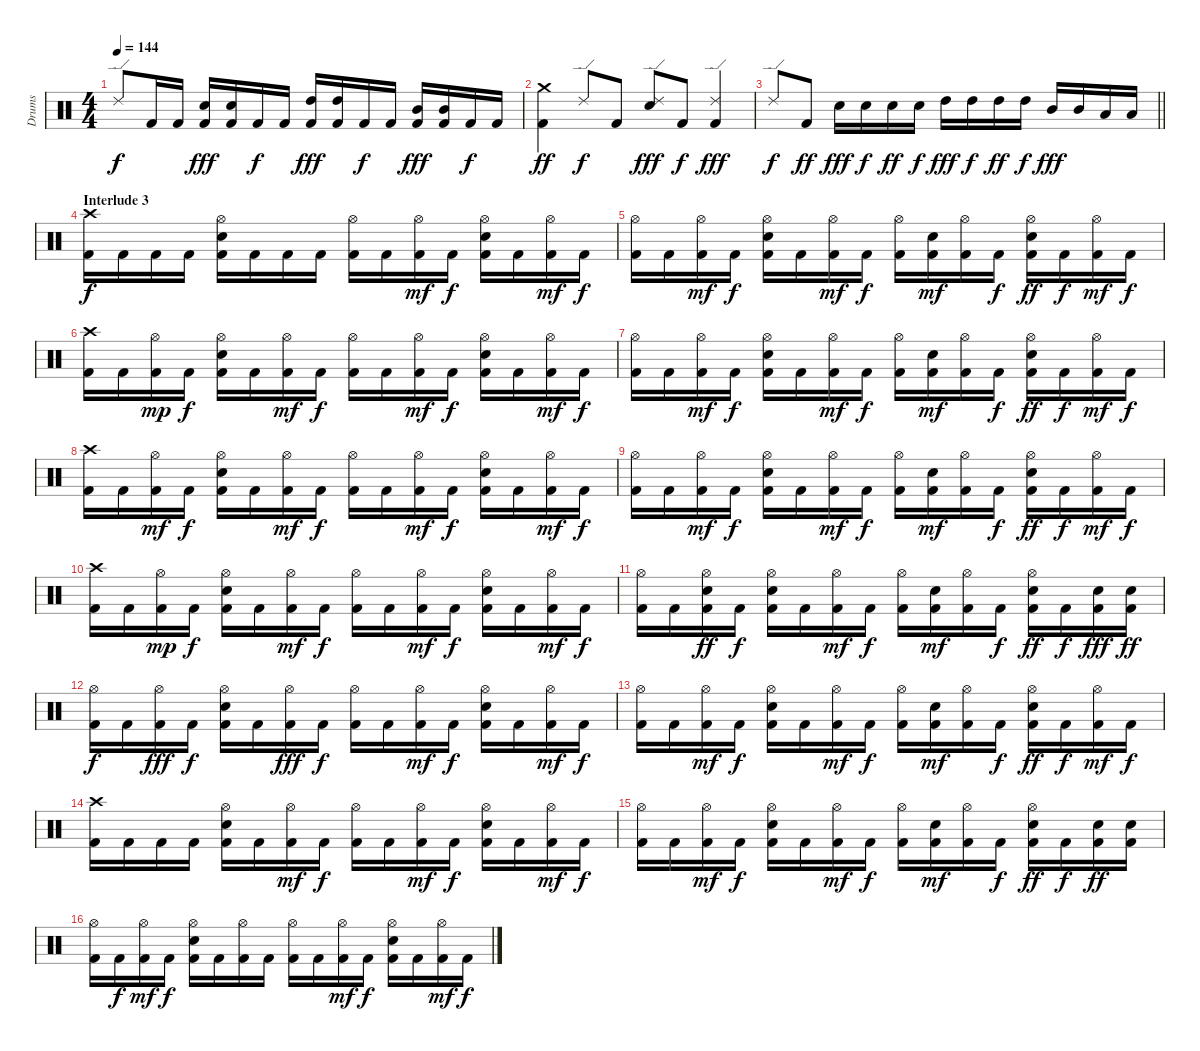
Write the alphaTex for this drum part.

\track ("Drums" "Drums") {instrument percussion}
\staff {score}
\articulation defaults
\ts (4 4)
\tempo 144
\clef neutral
\ks c "Ride (edge) 2".8{dy f} "Kick (hit) 2".16 "Kick (hit) 2".16
("Electric Snare (hit)" "Kick (hit) 2").16{dy fff} ("Electric Snare (hit)" "Kick (hit) 2").16 "Kick (hit) 2".16{dy f} "Kick (hit) 2".16 ("High Tom (hit)" "Kick (hit) 2").16{dy fff} ("High Tom (hit)" "Kick (hit) 2").16 "Kick (hit) 2".16{dy f} "Kick (hit) 2".16 ("Mid Tom (hit)" "Kick (hit) 2").16{dy fff} ("Mid Tom (hit)" "Kick (hit) 2").16 "Kick (hit) 2".16{dy f} "Kick (hit) 2".16 |
("Crash medium (hit)" "Kick (hit) 2").4{dy ff} "Ride (edge) 2".8{dy f} "Kick (hit) 2".8 ("Ride (edge) 2" "Electric Snare (hit)").8{dy fff} "Kick (hit) 2".8{dy f} ("Ride (edge) 2" "Kick (hit) 2").4{dy fff} |
\barLineRight lightlight "Ride (edge) 2".8{dy f} "Kick (hit) 2".8{dy ff} "Electric Snare (hit)".16{dy fff} "Electric Snare (hit)".16{dy f} "Electric Snare (hit)".16{dy ff} "Electric Snare (hit)".16{dy f} "High Tom (hit)".16{dy fff} "High Tom (hit)".16{dy f} "High Tom (hit)".16{dy ff} "High Tom (hit)".16{dy f} "Mid Tom (hit)".16{dy fff} "Mid Tom (hit)".16 "Low Tom (hit)".16 "Low Tom (hit)".16
|
\section ("" "Interlude 3")
("Crash high (hit)" "Kick (hit) 2").16{dy f} "Kick (hit) 2".16 "Kick (hit) 2".16 "Kick (hit) 2".16 ("Hi-Hat (open)" "Electric Snare (hit)" "Kick (hit) 2").16 "Kick (hit) 2".16 "Kick (hit) 2".16 "Kick (hit) 2".16 ("Hi-Hat (open)" "Kick (hit) 2").16 "Kick (hit) 2".16 ("Hi-Hat (open)" "Kick (hit) 2").16{dy mf} "Kick (hit) 2".16{dy f} ("Hi-Hat (open)" "Electric Snare (hit)" "Kick (hit) 2").16 "Kick (hit) 2".16 ("Hi-Hat (open)" "Kick (hit) 2").16{dy mf} "Kick (hit) 2".16{dy f} |
("Hi-Hat (open)" "Kick (hit) 2").16 "Kick (hit) 2".16 ("Hi-Hat (open)" "Kick (hit) 2").16{dy mf} "Kick (hit) 2".16{dy f} ("Hi-Hat (open)" "Electric Snare (hit)" "Kick (hit) 2").16 "Kick (hit) 2".16 ("Hi-Hat (open)" "Kick (hit) 2").16{dy mf} "Kick (hit) 2".16{dy f} ("Hi-Hat (open)" "Kick (hit) 2").16 ("Electric Snare (hit)" "Kick (hit) 2").16{dy mf} ("Hi-Hat (open)" "Kick (hit) 2").16 "Kick (hit) 2".16{dy f} ("Hi-Hat (open)" "Electric Snare (hit)" "Kick (hit) 2").16{dy ff} "Kick (hit) 2".16{dy f} ("Hi-Hat (open)" "Kick (hit) 2").16{dy mf} "Kick (hit) 2".16{dy f} |
("Crash high (hit)" "Kick (hit) 2").16 "Kick (hit) 2".16 ("Hi-Hat (open)" "Kick (hit) 2").16{dy mp} "Kick (hit) 2".16{dy f} ("Hi-Hat (open)" "Electric Snare (hit)" "Kick (hit) 2").16 "Kick (hit) 2".16 ("Hi-Hat (open)" "Kick (hit) 2").16{dy mf} "Kick (hit) 2".16{dy f} ("Hi-Hat (open)" "Kick (hit) 2").16 "Kick (hit) 2".16 ("Hi-Hat (open)" "Kick (hit) 2").16{dy mf} "Kick (hit) 2".16{dy f} ("Hi-Hat (open)" "Electric Snare (hit)" "Kick (hit) 2").16 "Kick (hit) 2".16 ("Hi-Hat (open)" "Kick (hit) 2").16{dy mf} "Kick (hit) 2".16{dy f} |
("Hi-Hat (open)" "Kick (hit) 2").16 "Kick (hit) 2".16 ("Hi-Hat (open)" "Kick (hit) 2").16{dy mf} "Kick (hit) 2".16{dy f} ("Hi-Hat (open)" "Electric Snare (hit)" "Kick (hit) 2").16 "Kick (hit) 2".16 ("Hi-Hat (open)" "Kick (hit) 2").16{dy mf} "Kick (hit) 2".16{dy f} ("Hi-Hat (open)" "Kick (hit) 2").16 ("Electric Snare (hit)" "Kick (hit) 2").16{dy mf} ("Hi-Hat (open)" "Kick (hit) 2").16 "Kick (hit) 2".16{dy f} ("Hi-Hat (open)" "Electric Snare (hit)" "Kick (hit) 2").16{dy ff} "Kick (hit) 2".16{dy f} ("Hi-Hat (open)" "Kick (hit) 2").16{dy mf} "Kick (hit) 2".16{dy f} |
("Crash high (hit)" "Kick (hit) 2").16 "Kick (hit) 2".16 ("Hi-Hat (open)" "Kick (hit) 2").16{dy mf} "Kick (hit) 2".16{dy f} ("Hi-Hat (open)" "Electric Snare (hit)" "Kick (hit) 2").16 "Kick (hit) 2".16 ("Hi-Hat (open)" "Kick (hit) 2").16{dy mf} "Kick (hit) 2".16{dy f} ("Hi-Hat (open)" "Kick (hit) 2").16 "Kick (hit) 2".16 ("Hi-Hat (open)" "Kick (hit) 2").16{dy mf} "Kick (hit) 2".16{dy f} ("Hi-Hat (open)" "Electric Snare (hit)" "Kick (hit) 2").16 "Kick (hit) 2".16 ("Hi-Hat (open)" "Kick (hit) 2").16{dy mf} "Kick (hit) 2".16{dy f} |
("Hi-Hat (open)" "Kick (hit) 2").16 "Kick (hit) 2".16 ("Hi-Hat (open)" "Kick (hit) 2").16{dy mf} "Kick (hit) 2".16{dy f} ("Hi-Hat (open)" "Electric Snare (hit)" "Kick (hit) 2").16 "Kick (hit) 2".16 ("Hi-Hat (open)" "Kick (hit) 2").16{dy mf} "Kick (hit) 2".16{dy f} ("Hi-Hat (open)" "Kick (hit) 2").16 ("Electric Snare (hit)" "Kick (hit) 2").16{dy mf} ("Hi-Hat (open)" "Kick (hit) 2").16 "Kick (hit) 2".16{dy f} ("Hi-Hat (open)" "Electric Snare (hit)" "Kick (hit) 2").16{dy ff} "Kick (hit) 2".16{dy f} ("Hi-Hat (open)" "Kick (hit) 2").16{dy mf} "Kick (hit) 2".16{dy f} |
("Crash high (hit)" "Kick (hit) 2").16 "Kick (hit) 2".16 ("Hi-Hat (open)" "Kick (hit) 2").16{dy mp} "Kick (hit) 2".16{dy f} ("Hi-Hat (open)" "Electric Snare (hit)" "Kick (hit) 2").16 "Kick (hit) 2".16 ("Hi-Hat (open)" "Kick (hit) 2").16{dy mf} "Kick (hit) 2".16{dy f} ("Hi-Hat (open)" "Kick (hit) 2").16 "Kick (hit) 2".16 ("Hi-Hat (open)" "Kick (hit) 2").16{dy mf} "Kick (hit) 2".16{dy f} ("Hi-Hat (open)" "Electric Snare (hit)" "Kick (hit) 2").16 "Kick (hit) 2".16 ("Hi-Hat (open)" "Kick (hit) 2").16{dy mf} "Kick (hit) 2".16{dy f} |
("Hi-Hat (open)" "Kick (hit) 2").16 "Kick (hit) 2".16 ("Hi-Hat (open)" "Electric Snare (hit)" "Kick (hit) 2").16{dy ff} "Kick (hit) 2".16{dy f} ("Hi-Hat (open)" "Electric Snare (hit)" "Kick (hit) 2").16 "Kick (hit) 2".16 ("Hi-Hat (open)" "Kick (hit) 2").16{dy mf} "Kick (hit) 2".16{dy f} ("Hi-Hat (open)" "Kick (hit) 2").16 ("Electric Snare (hit)" "Kick (hit) 2").16{dy mf} ("Hi-Hat (open)" "Kick (hit) 2").16 "Kick (hit) 2".16{dy f} ("Hi-Hat (open)" "Electric Snare (hit)" "Kick (hit) 2").16{dy ff} "Kick (hit) 2".16{dy f} ("Electric Snare (hit)" "Kick (hit) 2").16{dy fff} ("Electric Snare (hit)" "Kick (hit) 2").16{dy ff} |
("Hi-Hat (open)" "Kick (hit) 2").16{dy f} "Kick (hit) 2".16 ("Hi-Hat (open)" "Kick (hit) 2").16{dy fff} "Kick (hit) 2".16{dy f} ("Hi-Hat (open)" "Electric Snare (hit)" "Kick (hit) 2").16 "Kick (hit) 2".16 ("Hi-Hat (open)" "Kick (hit) 2").16{dy fff} "Kick (hit) 2".16{dy f} ("Hi-Hat (open)" "Kick (hit) 2").16 "Kick (hit) 2".16 ("Hi-Hat (open)" "Kick (hit) 2").16{dy mf} "Kick (hit) 2".16{dy f} ("Hi-Hat (open)" "Electric Snare (hit)" "Kick (hit) 2").16 "Kick (hit) 2".16 ("Hi-Hat (open)" "Kick (hit) 2").16{dy mf} "Kick (hit) 2".16{dy f} |
("Hi-Hat (open)" "Kick (hit) 2").16 "Kick (hit) 2".16 ("Hi-Hat (open)" "Kick (hit) 2").16{dy mf} "Kick (hit) 2".16{dy f} ("Hi-Hat (open)" "Electric Snare (hit)" "Kick (hit) 2").16 "Kick (hit) 2".16 ("Hi-Hat (open)" "Kick (hit) 2").16{dy mf} "Kick (hit) 2".16{dy f} ("Hi-Hat (open)" "Kick (hit) 2").16 ("Electric Snare (hit)" "Kick (hit) 2").16{dy mf} ("Hi-Hat (open)" "Kick (hit) 2").16 "Kick (hit) 2".16{dy f} ("Hi-Hat (open)" "Electric Snare (hit)" "Kick (hit) 2").16{dy ff} "Kick (hit) 2".16{dy f} ("Hi-Hat (open)" "Kick (hit) 2").16{dy mf} "Kick (hit) 2".16{dy f} |
("Crash high (hit)" "Kick (hit) 2").16 "Kick (hit) 2".16 "Kick (hit) 2".16 "Kick (hit) 2".16 ("Hi-Hat (open)" "Electric Snare (hit)" "Kick (hit) 2").16 "Kick (hit) 2".16 ("Hi-Hat (open)" "Kick (hit) 2").16{dy mf} "Kick (hit) 2".16{dy f} ("Hi-Hat (open)" "Kick (hit) 2").16 "Kick (hit) 2".16 ("Hi-Hat (open)" "Kick (hit) 2").16{dy mf} "Kick (hit) 2".16{dy f} ("Hi-Hat (open)" "Electric Snare (hit)" "Kick (hit) 2").16 "Kick (hit) 2".16 ("Hi-Hat (open)" "Kick (hit) 2").16{dy mf} "Kick (hit) 2".16{dy f} |
("Hi-Hat (open)" "Kick (hit) 2").16 "Kick (hit) 2".16 ("Hi-Hat (open)" "Kick (hit) 2").16{dy mf} "Kick (hit) 2".16{dy f} ("Hi-Hat (open)" "Electric Snare (hit)" "Kick (hit) 2").16 "Kick (hit) 2".16 ("Hi-Hat (open)" "Kick (hit) 2").16{dy mf} "Kick (hit) 2".16{dy f} ("Hi-Hat (open)" "Kick (hit) 2").16 ("Electric Snare (hit)" "Kick (hit) 2").16{dy mf} ("Hi-Hat (open)" "Kick (hit) 2").16 "Kick (hit) 2".16{dy f} ("Hi-Hat (open)" "Electric Snare (hit)" "Kick (hit) 2").16{dy ff} "Kick (hit) 2".16{dy f} ("Electric Snare (hit)" "Kick (hit) 2").16{dy ff} ("Electric Snare (hit)" "Kick (hit) 2").16 |
("Hi-Hat (open)" "Kick (hit) 2").16 "Kick (hit) 2".16{dy f} ("Hi-Hat (open)" "Kick (hit) 2").16{dy mf} "Kick (hit) 2".16{dy f} ("Hi-Hat (open)" "Electric Snare (hit)" "Kick (hit) 2").16 "Kick (hit) 2".16 ("Hi-Hat (open)" "Kick (hit) 2").16 "Kick (hit) 2".16 ("Hi-Hat (open)" "Kick (hit) 2").16 "Kick (hit) 2".16 ("Hi-Hat (open)" "Kick (hit) 2").16{dy mf} "Kick (hit) 2".16{dy f} ("Hi-Hat (open)" "Electric Snare (hit)" "Kick (hit) 2").16 "Kick (hit) 2".16 ("Hi-Hat (open)" "Kick (hit) 2").16{dy mf} "Kick (hit) 2".16{dy f}
